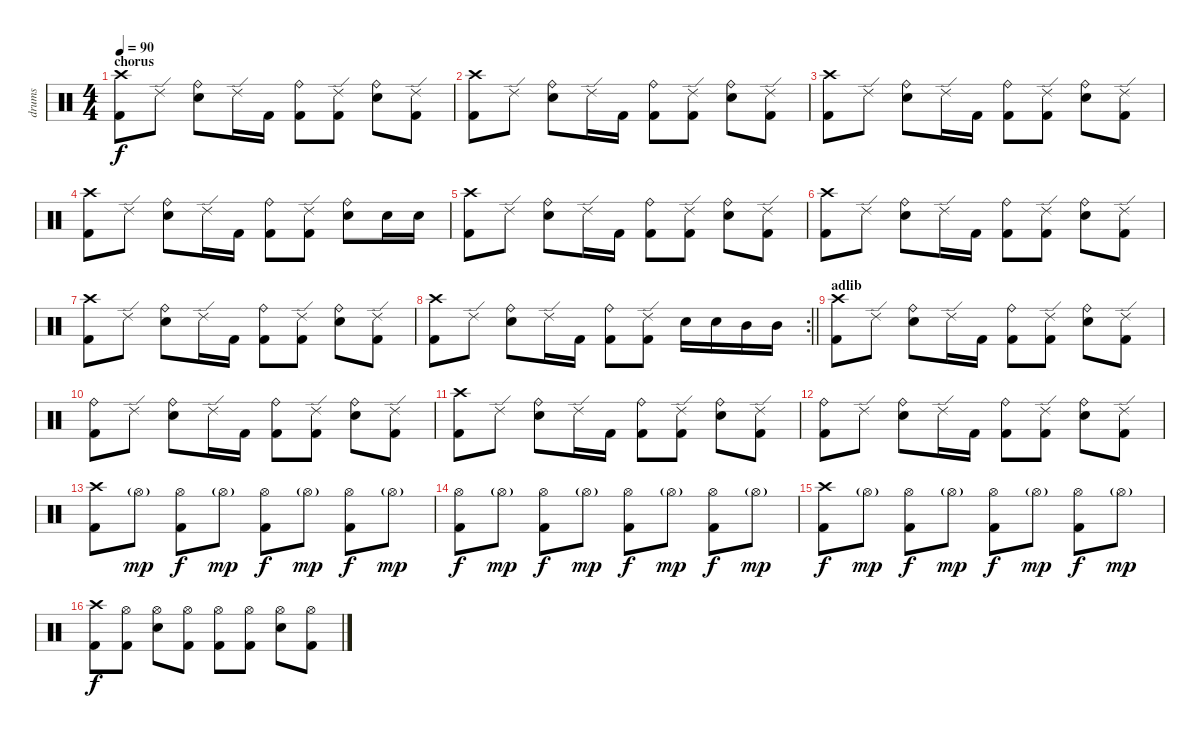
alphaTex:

\track ("drums" "drums") {instrument percussion}
\staff
\articulation defaults
\ts (4 4)
\section ("" "chorus")
\tempo 90
\clef neutral
\ks c
("Crash high (hit)" "Kick (hit) 2").8{dy f} "Ride (edge) 2".8 ("Ride (bell)" "Electric Snare (hit)").8 "Ride (edge) 2".16 "Kick (hit) 2".16 ("Ride (bell)" "Kick (hit) 2").8 ("Ride (edge) 2" "Kick (hit) 2").8 ("Ride (bell)" "Electric Snare (hit)").8 ("Ride (edge) 2" "Kick (hit) 2").8 |
("Crash high (hit)" "Kick (hit) 2").8 "Ride (edge) 2".8 ("Ride (bell)" "Electric Snare (hit)").8 "Ride (edge) 2".16 "Kick (hit) 2".16 ("Ride (bell)" "Kick (hit) 2").8 ("Ride (edge) 2" "Kick (hit) 2").8 ("Ride (bell)" "Electric Snare (hit)").8 ("Ride (edge) 2" "Kick (hit) 2").8 |
("Crash high (hit)" "Kick (hit) 2").8 "Ride (edge) 2".8 ("Ride (bell)" "Electric Snare (hit)").8 "Ride (edge) 2".16 "Kick (hit) 2".16 ("Ride (bell)" "Kick (hit) 2").8 ("Ride (edge) 2" "Kick (hit) 2").8 ("Ride (bell)" "Electric Snare (hit)").8 ("Ride (edge) 2" "Kick (hit) 2").8 |
("Crash high (hit)" "Kick (hit) 2").8 "Ride (edge) 2".8 ("Ride (bell)" "Electric Snare (hit)").8 "Ride (edge) 2".16 "Kick (hit) 2".16 ("Ride (bell)" "Kick (hit) 2").8 ("Ride (edge) 2" "Kick (hit) 2").8 ("Ride (bell)" "Electric Snare (hit)").8 "Electric Snare (hit)".16 "Electric Snare (hit)".16 |
("Crash high (hit)" "Kick (hit) 2").8 "Ride (edge) 2".8 ("Ride (bell)" "Electric Snare (hit)").8 "Ride (edge) 2".16 "Kick (hit) 2".16 ("Ride (bell)" "Kick (hit) 2").8 ("Ride (edge) 2" "Kick (hit) 2").8 ("Ride (bell)" "Electric Snare (hit)").8 ("Ride (edge) 2" "Kick (hit) 2").8 |
("Crash high (hit)" "Kick (hit) 2").8 "Ride (edge) 2".8 ("Ride (bell)" "Electric Snare (hit)").8 "Ride (edge) 2".16 "Kick (hit) 2".16 ("Ride (bell)" "Kick (hit) 2").8 ("Ride (edge) 2" "Kick (hit) 2").8 ("Ride (bell)" "Electric Snare (hit)").8 ("Ride (edge) 2" "Kick (hit) 2").8 |
("Crash high (hit)" "Kick (hit) 2").8 "Ride (edge) 2".8 ("Ride (bell)" "Electric Snare (hit)").8 "Ride (edge) 2".16 "Kick (hit) 2".16 ("Ride (bell)" "Kick (hit) 2").8 ("Ride (edge) 2" "Kick (hit) 2").8 ("Ride (bell)" "Electric Snare (hit)").8 ("Ride (edge) 2" "Kick (hit) 2").8 |
\rc 2
\barLineRight lightlight
("Crash high (hit)" "Kick (hit) 2").8 "Ride (edge) 2".8 ("Ride (bell)" "Electric Snare (hit)").8 "Ride (edge) 2".16 "Kick (hit) 2".16 ("Ride (bell)" "Kick (hit) 2").8 ("Ride (edge) 2" "Kick (hit) 2").8 "Electric Snare (hit)".16 "Electric Snare (hit)".16 "Mid Tom (hit)".16 "Mid Tom (hit)".16 |
\section ("" "adlib")
("Crash high (hit)" "Kick (hit) 2").8 "Ride (edge) 2".8 ("Ride (bell)" "Electric Snare (hit)").8 "Ride (edge) 2".16 "Kick (hit) 2".16 ("Ride (bell)" "Kick (hit) 2").8 ("Ride (edge) 2" "Kick (hit) 2").8 ("Ride (bell)" "Electric Snare (hit)").8 ("Ride (edge) 2" "Kick (hit) 2").8 |
("Ride (bell)" "Kick (hit) 2").8 "Ride (edge) 2".8 ("Ride (bell)" "Electric Snare (hit)").8 "Ride (edge) 2".16 "Kick (hit) 2".16 ("Ride (bell)" "Kick (hit) 2").8 ("Ride (edge) 2" "Kick (hit) 2").8 ("Ride (bell)" "Electric Snare (hit)").8 ("Ride (edge) 2" "Kick (hit) 2").8 |
("Crash high (hit)" "Kick (hit) 2").8 "Ride (edge) 2".8 ("Ride (bell)" "Electric Snare (hit)").8 "Ride (edge) 2".16 "Kick (hit) 2".16 ("Ride (bell)" "Kick (hit) 2").8 ("Ride (edge) 2" "Kick (hit) 2").8 ("Ride (bell)" "Electric Snare (hit)").8 ("Ride (edge) 2" "Kick (hit) 2").8 |
("Ride (bell)" "Kick (hit) 2").8 "Ride (edge) 2".8 ("Ride (bell)" "Electric Snare (hit)").8 "Ride (edge) 2".16 "Kick (hit) 2".16 ("Ride (bell)" "Kick (hit) 2").8 ("Ride (edge) 2" "Kick (hit) 2").8 ("Ride (bell)" "Electric Snare (hit)").8 ("Ride (edge) 2" "Kick (hit) 2").8 |
("Crash high (hit)" "Kick (hit) 2").8 "Hi-Hat (open)"{g}.8{dy mp} ("Hi-Hat (open)" "Kick (hit) 2").8{dy f} "Hi-Hat (open)"{g}.8{dy mp} ("Hi-Hat (open)" "Kick (hit) 2").8{dy f} "Hi-Hat (open)"{g}.8{dy mp} ("Hi-Hat (open)" "Kick (hit) 2").8{dy f} "Hi-Hat (open)"{g}.8{dy mp} |
("Hi-Hat (open)" "Kick (hit) 2").8{dy f} "Hi-Hat (open)"{g}.8{dy mp} ("Hi-Hat (open)" "Kick (hit) 2").8{dy f} "Hi-Hat (open)"{g}.8{dy mp} ("Hi-Hat (open)" "Kick (hit) 2").8{dy f} "Hi-Hat (open)"{g}.8{dy mp} ("Hi-Hat (open)" "Kick (hit) 2").8{dy f} "Hi-Hat (open)"{g}.8{dy mp} |
("Crash high (hit)" "Kick (hit) 2").8{dy f} "Hi-Hat (open)"{g}.8{dy mp} ("Hi-Hat (open)" "Kick (hit) 2").8{dy f} "Hi-Hat (open)"{g}.8{dy mp} ("Hi-Hat (open)" "Kick (hit) 2").8{dy f} "Hi-Hat (open)"{g}.8{dy mp} ("Hi-Hat (open)" "Kick (hit) 2").8{dy f} "Hi-Hat (open)"{g}.8{dy mp} |
("Crash high (hit)" "Kick (hit) 2").8{dy f} ("Hi-Hat (open)" "Kick (hit) 2").8 ("Hi-Hat (open)" "Electric Snare (hit)").8 ("Hi-Hat (open)" "Kick (hit) 2").8 ("Hi-Hat (open)" "Kick (hit) 2").8 ("Hi-Hat (open)" "Kick (hit) 2").8 ("Hi-Hat (open)" "Electric Snare (hit)").8 ("Hi-Hat (open)" "Kick (hit) 2").8
